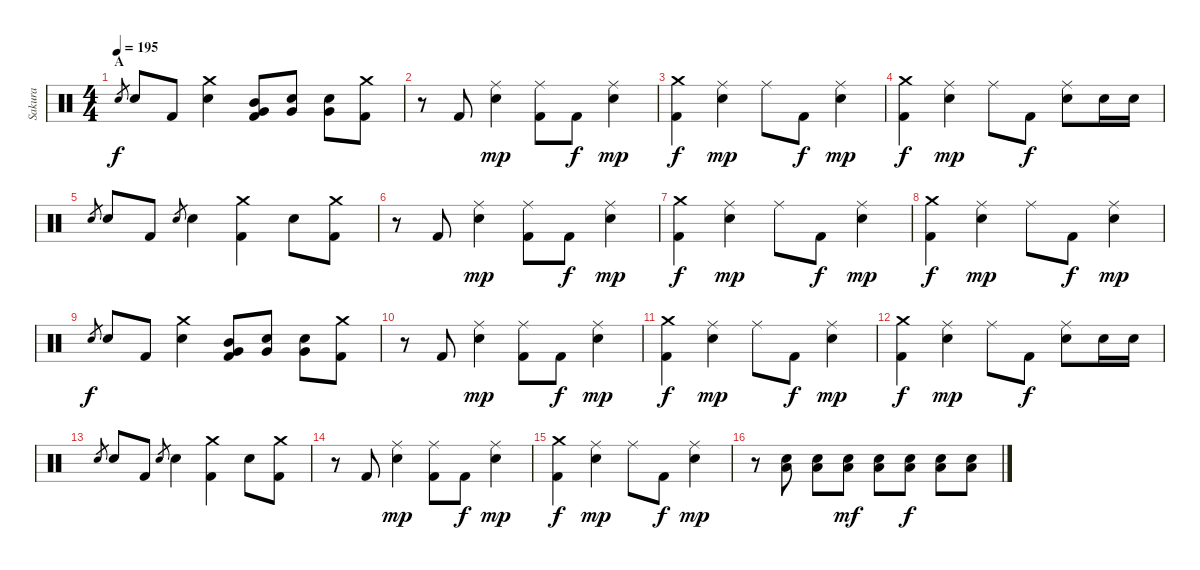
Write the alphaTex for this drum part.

\track ("Sakura" "Sakura") {instrument percussion}
\staff {score}
\articulation defaults
\ts (4 4)
\section ("" "A")
\tempo 195
\clef neutral
\ks c "Snare (hit) 2".8{gr dy f} "Snare (hit) 2".8 "Kick (hit) 2".8
("Crash medium (hit)" "Snare (hit) 2").4 ("Mid Tom (hit)" "Very Low Tom (hit)" "Kick (hit) 2").8 ("Snare (hit) 2" "Very Low Tom (hit)").8 ("Snare (hit) 2" "Very Low Tom (hit)").8 ("Crash medium (hit)" "Kick (hit) 2").8 |
r.8 "Kick (hit) 2".8 ("Ride (middle)" "Snare (hit) 2").4{dy mp} ("Ride (middle)" "Kick (hit) 2").8 "Kick (hit) 2".8{dy f} ("Ride (middle)" "Snare (hit) 2").4{dy mp} |
("Crash medium (hit)" "Kick (hit) 2").4{dy f} ("Ride (middle)" "Snare (hit) 2").4{dy mp} "Ride (middle)".8 "Kick (hit) 2".8{dy f} ("Ride (middle)" "Snare (hit) 2").4{dy mp} |
("Crash medium (hit)" "Kick (hit) 2").4{dy f} ("Ride (middle)" "Snare (hit) 2").4{dy mp} "Ride (middle)".8 "Kick (hit) 2".8{dy f} ("Ride (middle)" "Snare (hit) 2").8 "Snare (hit) 2".16 "Snare (hit) 2".16 |
"Snare (hit) 2".8{gr} "Snare (hit) 2".8 "Kick (hit) 2".8 "Snare (hit) 2".8{gr} "Snare (hit) 2".4 ("Crash medium (hit)" "Kick (hit) 2").4 "Snare (hit) 2".8 ("Crash medium (hit)" "Kick (hit) 2").8 |
r.8 "Kick (hit) 2".8 ("Ride (middle)" "Snare (hit) 2").4{dy mp} ("Ride (middle)" "Kick (hit) 2").8 "Kick (hit) 2".8{dy f} ("Ride (middle)" "Snare (hit) 2").4{dy mp} |
("Crash medium (hit)" "Kick (hit) 2").4{dy f} ("Ride (middle)" "Snare (hit) 2").4{dy mp} "Ride (middle)".8 "Kick (hit) 2".8{dy f} ("Ride (middle)" "Snare (hit) 2").4{dy mp} |
("Crash medium (hit)" "Kick (hit) 2").4{dy f} ("Ride (middle)" "Snare (hit) 2").4{dy mp} "Ride (middle)".8 "Kick (hit) 2".8{dy f} ("Ride (middle)" "Snare (hit) 2").4{dy mp} |
"Snare (hit) 2".8{gr dy f} "Snare (hit) 2".8 "Kick (hit) 2".8 ("Crash medium (hit)" "Snare (hit) 2").4 ("Mid Tom (hit)" "Very Low Tom (hit)" "Kick (hit) 2").8 ("Snare (hit) 2" "Very Low Tom (hit)").8 ("Snare (hit) 2" "Very Low Tom (hit)").8 ("Crash medium (hit)" "Kick (hit) 2").8 |
r.8 "Kick (hit) 2".8 ("Ride (middle)" "Snare (hit) 2").4{dy mp} ("Ride (middle)" "Kick (hit) 2").8 "Kick (hit) 2".8{dy f} ("Ride (middle)" "Snare (hit) 2").4{dy mp} |
("Crash medium (hit)" "Kick (hit) 2").4{dy f} ("Ride (middle)" "Snare (hit) 2").4{dy mp} "Ride (middle)".8 "Kick (hit) 2".8{dy f} ("Ride (middle)" "Snare (hit) 2").4{dy mp} |
("Crash medium (hit)" "Kick (hit) 2").4{dy f} ("Ride (middle)" "Snare (hit) 2").4{dy mp} "Ride (middle)".8 "Kick (hit) 2".8{dy f} ("Ride (middle)" "Snare (hit) 2").8 "Snare (hit) 2".16 "Snare (hit) 2".16 |
"Snare (hit) 2".8{gr} "Snare (hit) 2".8 "Kick (hit) 2".8 "Snare (hit) 2".8{gr} "Snare (hit) 2".4 ("Crash medium (hit)" "Kick (hit) 2").4 "Snare (hit) 2".8 ("Crash medium (hit)" "Kick (hit) 2").8 |
r.8 "Kick (hit) 2".8 ("Ride (middle)" "Snare (hit) 2").4{dy mp} ("Ride (middle)" "Kick (hit) 2").8 "Kick (hit) 2".8{dy f} ("Ride (middle)" "Snare (hit) 2").4{dy mp} |
("Crash medium (hit)" "Kick (hit) 2").4{dy f} ("Ride (middle)" "Snare (hit) 2").4{dy mp} "Ride (middle)".8 "Kick (hit) 2".8{dy f} ("Ride (middle)" "Snare (hit) 2").4{dy mp} |
r.8 ("Snare (hit) 2" "Low Floor Tom (hit)").8 ("Snare (hit) 2" "Low Floor Tom (hit)").8 ("Snare (hit) 2" "Low Floor Tom (hit)").8{dy mf} ("Snare (hit) 2" "Low Floor Tom (hit)").8 ("Snare (hit) 2" "Low Floor Tom (hit)").8{dy f} ("Snare (hit) 2" "Low Floor Tom (hit)").8 ("Snare (hit) 2" "Low Floor Tom (hit)").8
